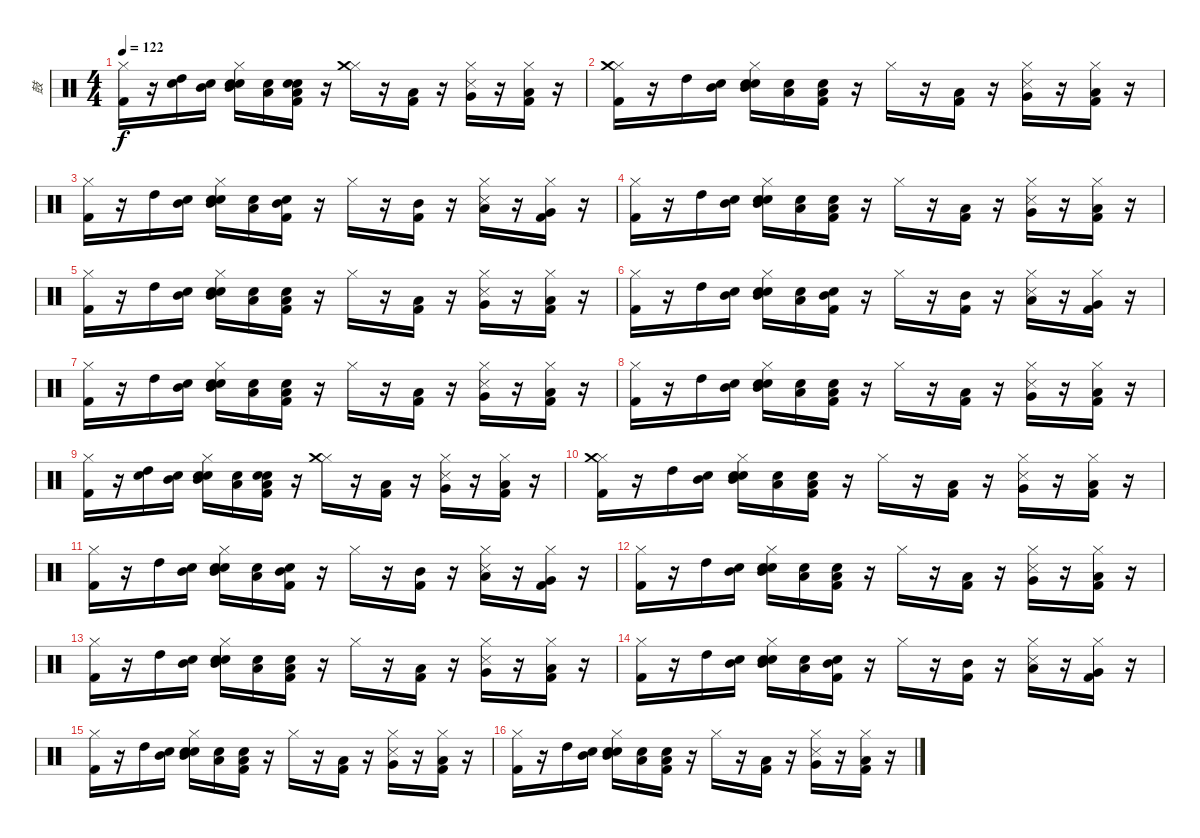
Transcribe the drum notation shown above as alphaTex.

\track ("鼓" "鼓") {instrument percussion}
\staff {score}
\articulation defaults
\ts (4 4)
\tempo 122
\clef neutral
\ks c
("Hi-Hat (closed)" "Kick (hit) 2").16{dy f} r.16 ("High Tom (hit)" "Snare (hit) 2").16 ("Snare (hit)" "Mid Tom (hit)").16 ("Snare (hit)" "Snare (hit) 2" "Hi-Hat (closed)" "Mid Tom (hit)").16 ("Snare (hit)" "Low Tom (hit)").16 ("Snare (hit)" "Low Tom (hit)" "Kick (hit) 2" "Snare (hit) 2").16 r.16 ("Hi-Hat (closed)" "Crash medium (hit)").16 r.16 ("Kick (hit) 2" "Low Tom (hit)").16 r.16 ("Hi-Hat (closed)" "Very Low Tom (hit)" "Snare (side stick) 3").16 r.16 ("Kick (hit) 2" "Low Floor Tom (hit)" "Hi-Hat (closed)").16 r.16 |
("Kick (hit) 2" "Hi-Hat (closed)" "Crash medium (hit)").16 r.16 "High Tom (hit)".16 ("Snare (hit)" "Mid Tom (hit)").16 ("Snare (hit)" "Snare (hit) 2" "Mid Tom (hit)" "Hi-Hat (closed)").16 ("Snare (hit)" "Low Tom (hit)").16 ("Snare (hit)" "Low Tom (hit)" "Kick (hit) 2").16 r.16 "Hi-Hat (closed)".16 r.16 ("Kick (hit) 2" "Low Tom (hit)").16 r.16 ("Very Low Tom (hit)" "Hi-Hat (closed)" "Snare (side stick) 3").16 r.16 ("Kick (hit) 2" "Low Floor Tom (hit)" "Hi-Hat (closed)").16 r.16 |
("Kick (hit) 2" "Hi-Hat (closed)").16 r.16 "High Tom (hit)".16 ("Snare (hit)" "Mid Tom (hit)").16 ("Snare (hit)" "Snare (hit) 2" "Hi-Hat (closed)" "Mid Tom (hit)").16 ("Snare (hit)" "Low Tom (hit)").16 ("Snare (hit)" "Kick (hit) 2" "Mid Tom (hit)").16 r.16 "Hi-Hat (closed)".16 r.16 ("Kick (hit) 2" "Mid Tom (hit)").16 r.16 ("Hi-Hat (closed)" "Low Tom (hit)" "Snare (side stick) 3").16 r.16 ("Kick (hit) 2" "Very Low Tom (hit)" "Hi-Hat (closed)").16 r.16 |
("Hi-Hat (closed)" "Kick (hit) 2").16 r.16 "High Tom (hit)".16 ("Snare (hit)" "Mid Tom (hit)").16 ("Snare (hit)" "Snare (hit) 2" "Hi-Hat (closed)" "Mid Tom (hit)").16 ("Snare (hit)" "Low Tom (hit)").16 ("Snare (hit)" "Low Tom (hit)" "Kick (hit) 2").16 r.16 "Hi-Hat (closed)".16 r.16 ("Kick (hit) 2" "Low Tom (hit)").16 r.16 ("Hi-Hat (closed)" "Very Low Tom (hit)" "Snare (side stick) 3").16 r.16 ("Kick (hit) 2" "Low Floor Tom (hit)" "Hi-Hat (closed)").16 r.16 |
("Hi-Hat (closed)" "Kick (hit) 2").16 r.16 "High Tom (hit)".16 ("Snare (hit)" "Mid Tom (hit)").16 ("Snare (hit)" "Snare (hit) 2" "Hi-Hat (closed)" "Mid Tom (hit)").16 ("Snare (hit)" "Low Tom (hit)").16 ("Snare (hit)" "Low Tom (hit)" "Kick (hit) 2").16 r.16 "Hi-Hat (closed)".16 r.16 ("Kick (hit) 2" "Low Tom (hit)").16 r.16 ("Hi-Hat (closed)" "Very Low Tom (hit)" "Snare (side stick) 3").16 r.16 ("Kick (hit) 2" "Low Floor Tom (hit)" "Hi-Hat (closed)").16 r.16 |
("Kick (hit) 2" "Hi-Hat (closed)").16 r.16 "High Tom (hit)".16 ("Snare (hit)" "Mid Tom (hit)").16 ("Snare (hit)" "Snare (hit) 2" "Hi-Hat (closed)" "Mid Tom (hit)").16 ("Snare (hit)" "Low Tom (hit)").16 ("Snare (hit)" "Kick (hit) 2" "Mid Tom (hit)").16 r.16 "Hi-Hat (closed)".16 r.16 ("Kick (hit) 2" "Mid Tom (hit)").16 r.16 ("Hi-Hat (closed)" "Low Tom (hit)" "Snare (side stick) 3").16 r.16 ("Kick (hit) 2" "Very Low Tom (hit)" "Hi-Hat (closed)").16 r.16 |
("Hi-Hat (closed)" "Kick (hit) 2").16 r.16 "High Tom (hit)".16 ("Snare (hit)" "Mid Tom (hit)").16 ("Snare (hit)" "Snare (hit) 2" "Hi-Hat (closed)" "Mid Tom (hit)").16 ("Snare (hit)" "Low Tom (hit)").16 ("Snare (hit)" "Low Tom (hit)" "Kick (hit) 2").16 r.16 "Hi-Hat (closed)".16 r.16 ("Kick (hit) 2" "Low Tom (hit)").16 r.16 ("Hi-Hat (closed)" "Very Low Tom (hit)" "Snare (side stick) 3").16 r.16 ("Kick (hit) 2" "Low Floor Tom (hit)" "Hi-Hat (closed)").16 r.16 |
("Hi-Hat (closed)" "Kick (hit) 2").16 r.16 "High Tom (hit)".16 ("Snare (hit)" "Mid Tom (hit)").16 ("Snare (hit)" "Snare (hit) 2" "Hi-Hat (closed)" "Mid Tom (hit)").16 ("Snare (hit)" "Low Tom (hit)").16 ("Snare (hit)" "Low Tom (hit)" "Kick (hit) 2").16 r.16 "Hi-Hat (closed)".16 r.16 ("Kick (hit) 2" "Low Tom (hit)").16 r.16 ("Hi-Hat (closed)" "Very Low Tom (hit)" "Snare (side stick) 3").16 r.16 ("Kick (hit) 2" "Low Floor Tom (hit)" "Hi-Hat (closed)").16 r.16 |
("Hi-Hat (closed)" "Kick (hit) 2").16 r.16 ("High Tom (hit)" "Snare (hit) 2").16 ("Snare (hit)" "Mid Tom (hit)").16 ("Snare (hit)" "Snare (hit) 2" "Hi-Hat (closed)" "Mid Tom (hit)").16 ("Snare (hit)" "Low Tom (hit)").16 ("Snare (hit)" "Low Tom (hit)" "Kick (hit) 2" "Snare (hit) 2").16 r.16 ("Hi-Hat (closed)" "Crash medium (hit)").16 r.16 ("Kick (hit) 2" "Low Tom (hit)").16 r.16 ("Hi-Hat (closed)" "Very Low Tom (hit)" "Snare (side stick) 3").16 r.16 ("Kick (hit) 2" "Low Floor Tom (hit)" "Hi-Hat (closed)").16 r.16 |
("Kick (hit) 2" "Hi-Hat (closed)" "Crash medium (hit)").16 r.16 "High Tom (hit)".16 ("Snare (hit)" "Mid Tom (hit)").16 ("Snare (hit)" "Snare (hit) 2" "Mid Tom (hit)" "Hi-Hat (closed)").16 ("Snare (hit)" "Low Tom (hit)").16 ("Snare (hit)" "Low Tom (hit)" "Kick (hit) 2").16 r.16 "Hi-Hat (closed)".16 r.16 ("Kick (hit) 2" "Low Tom (hit)").16 r.16 ("Very Low Tom (hit)" "Hi-Hat (closed)" "Snare (side stick) 3").16 r.16 ("Kick (hit) 2" "Low Floor Tom (hit)" "Hi-Hat (closed)").16 r.16 |
("Kick (hit) 2" "Hi-Hat (closed)").16 r.16 "High Tom (hit)".16 ("Snare (hit)" "Mid Tom (hit)").16 ("Snare (hit)" "Snare (hit) 2" "Hi-Hat (closed)" "Mid Tom (hit)").16 ("Snare (hit)" "Low Tom (hit)").16 ("Snare (hit)" "Kick (hit) 2" "Mid Tom (hit)").16 r.16 "Hi-Hat (closed)".16 r.16 ("Kick (hit) 2" "Mid Tom (hit)").16 r.16 ("Hi-Hat (closed)" "Low Tom (hit)" "Snare (side stick) 3").16 r.16 ("Kick (hit) 2" "Very Low Tom (hit)" "Hi-Hat (closed)").16 r.16 |
("Hi-Hat (closed)" "Kick (hit) 2").16 r.16 "High Tom (hit)".16 ("Snare (hit)" "Mid Tom (hit)").16 ("Snare (hit)" "Snare (hit) 2" "Hi-Hat (closed)" "Mid Tom (hit)").16 ("Snare (hit)" "Low Tom (hit)").16 ("Snare (hit)" "Low Tom (hit)" "Kick (hit) 2").16 r.16 "Hi-Hat (closed)".16 r.16 ("Kick (hit) 2" "Low Tom (hit)").16 r.16 ("Hi-Hat (closed)" "Very Low Tom (hit)" "Snare (side stick) 3").16 r.16 ("Kick (hit) 2" "Low Floor Tom (hit)" "Hi-Hat (closed)").16 r.16 |
("Hi-Hat (closed)" "Kick (hit) 2").16 r.16 "High Tom (hit)".16 ("Snare (hit)" "Mid Tom (hit)").16 ("Snare (hit)" "Snare (hit) 2" "Hi-Hat (closed)" "Mid Tom (hit)").16 ("Snare (hit)" "Low Tom (hit)").16 ("Snare (hit)" "Low Tom (hit)" "Kick (hit) 2").16 r.16 "Hi-Hat (closed)".16 r.16 ("Kick (hit) 2" "Low Tom (hit)").16 r.16 ("Hi-Hat (closed)" "Very Low Tom (hit)" "Snare (side stick) 3").16 r.16 ("Kick (hit) 2" "Low Floor Tom (hit)" "Hi-Hat (closed)").16 r.16 |
("Kick (hit) 2" "Hi-Hat (closed)").16 r.16 "High Tom (hit)".16 ("Snare (hit)" "Mid Tom (hit)").16 ("Snare (hit)" "Snare (hit) 2" "Hi-Hat (closed)" "Mid Tom (hit)").16 ("Snare (hit)" "Low Tom (hit)").16 ("Snare (hit)" "Kick (hit) 2" "Mid Tom (hit)").16 r.16 "Hi-Hat (closed)".16 r.16 ("Kick (hit) 2" "Mid Tom (hit)").16 r.16 ("Hi-Hat (closed)" "Low Tom (hit)" "Snare (side stick) 3").16 r.16 ("Kick (hit) 2" "Very Low Tom (hit)" "Hi-Hat (closed)").16 r.16 |
("Hi-Hat (closed)" "Kick (hit) 2").16 r.16 "High Tom (hit)".16 ("Snare (hit)" "Mid Tom (hit)").16 ("Snare (hit)" "Snare (hit) 2" "Hi-Hat (closed)" "Mid Tom (hit)").16 ("Snare (hit)" "Low Tom (hit)").16 ("Snare (hit)" "Low Tom (hit)" "Kick (hit) 2").16 r.16 "Hi-Hat (closed)".16 r.16 ("Kick (hit) 2" "Low Tom (hit)").16 r.16 ("Hi-Hat (closed)" "Very Low Tom (hit)" "Snare (side stick) 3").16 r.16 ("Kick (hit) 2" "Low Floor Tom (hit)" "Hi-Hat (closed)").16 r.16 |
("Hi-Hat (closed)" "Kick (hit) 2").16 r.16 "High Tom (hit)".16 ("Snare (hit)" "Mid Tom (hit)").16 ("Snare (hit)" "Snare (hit) 2" "Hi-Hat (closed)" "Mid Tom (hit)").16 ("Snare (hit)" "Low Tom (hit)").16 ("Snare (hit)" "Low Tom (hit)" "Kick (hit) 2").16 r.16 "Hi-Hat (closed)".16 r.16 ("Kick (hit) 2" "Low Tom (hit)").16 r.16 ("Hi-Hat (closed)" "Very Low Tom (hit)" "Snare (side stick) 3").16 r.16 ("Kick (hit) 2" "Low Floor Tom (hit)" "Hi-Hat (closed)").16 r.16
